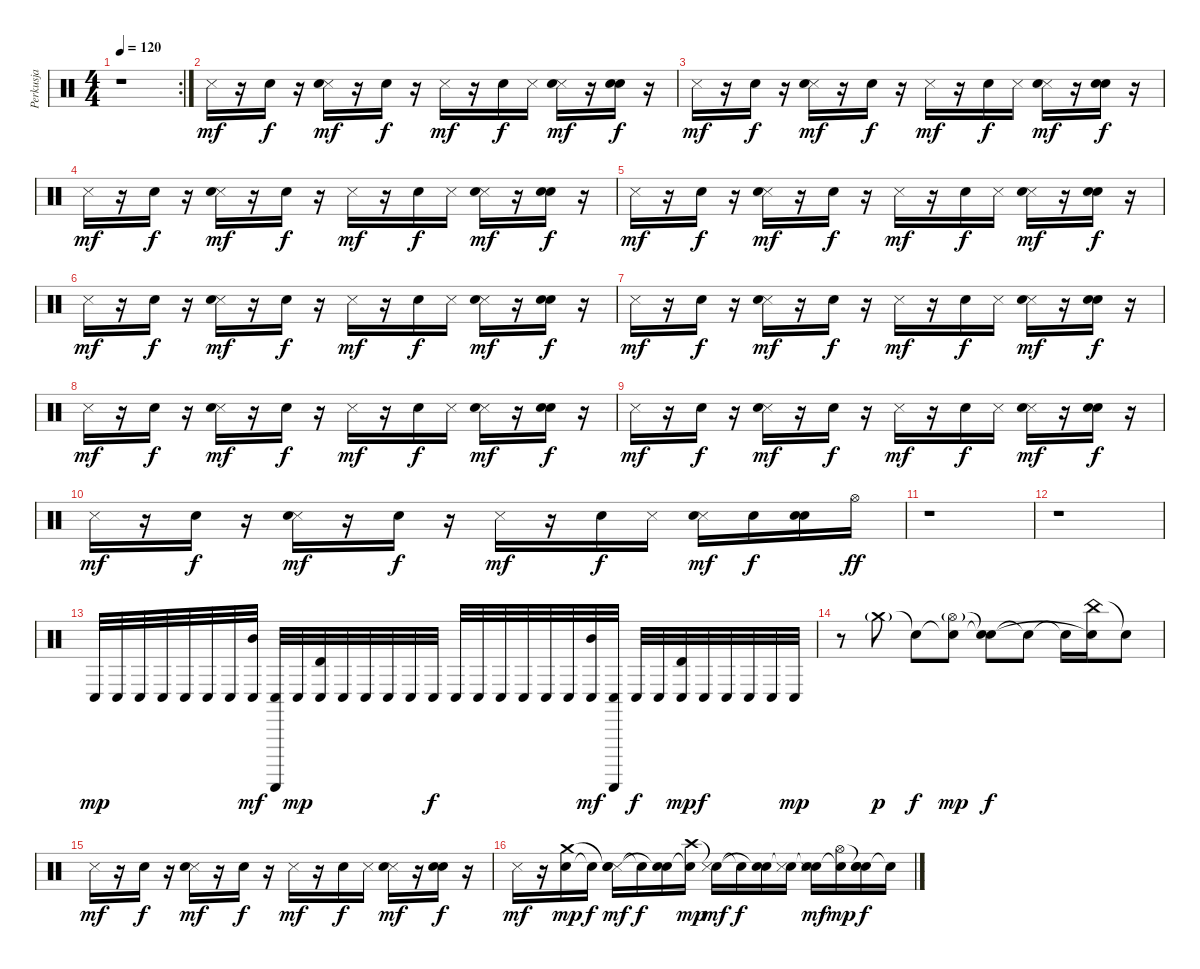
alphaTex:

\track ("Perkusja" "Perkusja") {instrument percussion}
\staff {score}
\articulation defaults
\rc 2
\ts (4 4)
\tempo 120
\clef neutral
\ks c
r.1{dy ff} |
"Metronome (hit)".16{dy mf} r.16 "Electric Snare (hit)".16{dy f} r.16 ("Snare (side stick) 3" "Metronome (bell)").16{dy mf} r.16 "Snare (hit) 2".16{dy f} r.16 "Metronome (hit)".16{dy mf} r.16 "Electric Snare (hit)".16{dy f} "Snare (side stick) 3".16 ("Snare (side stick) 3" "Metronome (bell)").16{dy mf} r.16 ("Snare (hit) 2" "Metronome (bell)").16{dy f} r.16 |
"Metronome (hit)".16{dy mf} r.16 "Electric Snare (hit)".16{dy f} r.16 ("Snare (side stick) 3" "Metronome (bell)").16{dy mf} r.16 "Snare (hit) 2".16{dy f} r.16 "Metronome (hit)".16{dy mf} r.16 "Electric Snare (hit)".16{dy f} "Snare (side stick) 3".16 ("Snare (side stick) 3" "Metronome (bell)").16{dy mf} r.16 ("Snare (hit) 2" "Metronome (bell)").16{dy f} r.16 |
"Metronome (hit)".16{dy mf} r.16 "Electric Snare (hit)".16{dy f} r.16 ("Snare (side stick) 3" "Metronome (bell)").16{dy mf} r.16 "Snare (hit) 2".16{dy f} r.16 "Metronome (hit)".16{dy mf} r.16 "Electric Snare (hit)".16{dy f} "Snare (side stick) 3".16 ("Snare (side stick) 3" "Metronome (bell)").16{dy mf} r.16 ("Snare (hit) 2" "Metronome (bell)").16{dy f} r.16 |
"Metronome (hit)".16{dy mf} r.16 "Electric Snare (hit)".16{dy f} r.16 ("Snare (side stick) 3" "Metronome (bell)").16{dy mf} r.16 "Snare (hit) 2".16{dy f} r.16 "Metronome (hit)".16{dy mf} r.16 "Electric Snare (hit)".16{dy f} "Snare (side stick) 3".16 ("Snare (side stick) 3" "Metronome (bell)").16{dy mf} r.16 ("Snare (hit) 2" "Metronome (bell)").16{dy f} r.16 |
"Metronome (hit)".16{dy mf} r.16 "Electric Snare (hit)".16{dy f} r.16 ("Snare (side stick) 3" "Metronome (bell)").16{dy mf} r.16 "Snare (hit) 2".16{dy f} r.16 "Metronome (hit)".16{dy mf} r.16 "Electric Snare (hit)".16{dy f} "Snare (side stick) 3".16 ("Snare (side stick) 3" "Metronome (bell)").16{dy mf} r.16 ("Snare (hit) 2" "Metronome (bell)").16{dy f} r.16 |
"Metronome (hit)".16{dy mf} r.16 "Electric Snare (hit)".16{dy f} r.16 ("Snare (side stick) 3" "Metronome (bell)").16{dy mf} r.16 "Snare (hit) 2".16{dy f} r.16 "Metronome (hit)".16{dy mf} r.16 "Electric Snare (hit)".16{dy f} "Snare (side stick) 3".16 ("Snare (side stick) 3" "Metronome (bell)").16{dy mf} r.16 ("Snare (hit) 2" "Metronome (bell)").16{dy f} r.16 |
"Metronome (hit)".16{dy mf} r.16 "Electric Snare (hit)".16{dy f} r.16 ("Snare (side stick) 3" "Metronome (bell)").16{dy mf} r.16 "Snare (hit) 2".16{dy f} r.16 "Metronome (hit)".16{dy mf} r.16 "Electric Snare (hit)".16{dy f} "Snare (side stick) 3".16 ("Snare (side stick) 3" "Metronome (bell)").16{dy mf} r.16 ("Snare (hit) 2" "Metronome (bell)").16{dy f} r.16 |
"Metronome (hit)".16{dy mf} r.16 "Electric Snare (hit)".16{dy f} r.16 ("Snare (side stick) 3" "Metronome (bell)").16{dy mf} r.16 "Snare (hit) 2".16{dy f} r.16 "Metronome (hit)".16{dy mf} r.16 "Electric Snare (hit)".16{dy f} "Snare (side stick) 3".16 ("Snare (side stick) 3" "Metronome (bell)").16{dy mf} r.16 ("Snare (hit) 2" "Metronome (bell)").16{dy f} r.16 |
"Metronome (hit)".16{dy mf} r.16 "Electric Snare (hit)".16{dy f} r.16 ("Snare (side stick) 3" "Metronome (bell)").16{dy mf} r.16 "Snare (hit) 2".16{dy f} r.16 "Metronome (hit)".16{dy mf} r.16 "Electric Snare (hit)".16{dy f} "Snare (side stick) 3".16 ("Snare (side stick) 3" "Metronome (bell)").16{dy mf} "Electric Snare (hit)".16{dy f} ("Snare (hit) 2" "Metronome (bell)").16 "Hi-Hat (open)".16{dy ff} |
r.1 |
r.1 |
"Conga low (hit)".32{dy mp} "Conga low (hit)".32 "Conga low (hit)".32 "Conga low (hit)".32 "Conga low (hit)".32 "Conga low (hit)".32 "Conga low (hit)".32 ("Conga low (hit)" "Mid Tom (hit)").32{dy mf} ("Conga low (hit)" "Guiro (scrap-return)").32 "Conga low (hit)".32{dy mp} ("Conga low (hit)" "Timbale high (hit)").32 "Conga low (hit)".32 "Conga low (hit)".32 "Conga low (hit)".32 "Conga low (hit)".32 "Conga low (hit)".32{dy f} "Conga low (hit)".32 "Conga low (hit)".32 "Conga low (hit)".32 "Conga low (hit)".32 "Conga low (hit)".32 "Conga low (hit)".32 ("Conga low (hit)" "Mid Tom (hit)").32{dy mf} ("Conga low (hit)" "Guiro (scrap-return)").32 "Conga low (hit)".32{dy f} "Conga low (hit)".32 ("Conga low (hit)" "Timbale high (hit)").32{dy mp} "Conga low (hit)".32{dy f} "Conga low (hit)".32 "Conga low (hit)".32 "Conga low (hit)".32 "Conga low (hit)".32{dy mp} |
r.8 "Crash medium (hit)"{g}.8{dy p} "Snare (hit)"{t}.8{dy f} ("Snare (hit)"{t} "Hi-Hat (open)"{g}).8{dy mp} ("Snare (hit)"{t} "Snare (hit)"{t}).8{dy f} "Snare (hit)"{t}.8 "Snare (hit)"{t}.16 ("China (hit)" "Snare (hit)"{t}).16 "Snare (hit)"{t}.8 |
"Metronome (hit)".16{dy mf} r.16 "Electric Snare (hit)".16{dy f} r.16 ("Snare (side stick) 3" "Metronome (bell)").16{dy mf} r.16 "Snare (hit) 2".16{dy f} r.16 "Metronome (hit)".16{dy mf} r.16 "Electric Snare (hit)".16{dy f} "Snare (side stick) 3".16 ("Snare (side stick) 3" "Metronome (bell)").16{dy mf} r.16 ("Snare (hit) 2" "Metronome (bell)").16{dy f} r.16 |
"Metronome (hit)".16{dy mf} r.16 ("Electric Snare (hit)" "Crash medium (hit)").16{dy mp} "Snare (hit)"{t}.16{dy f} ("Snare (side stick) 3" "Snare (hit)"{t} "Metronome (bell)").16{dy mf} "Snare (hit)"{t}.16{dy f} ("Snare (hit) 2" "Snare (hit)"{t}).16 ("Crash high (hit)" "Snare (hit)"{t}).16{dy mp} ("Snare (hit)"{t} "Metronome (hit)").16{dy mf} "Snare (hit)"{t}.16{dy f} ("Electric Snare (hit)" "Snare (hit)"{t}).16 ("Snare (hit)"{t} "Snare (side stick) 3").16 ("Snare (hit)"{t} "Snare (side stick) 3" "Metronome (bell)").16{dy mf} ("Snare (hit)"{t} "Hi-Hat (open)").16{dy mp} ("Snare (hit) 2" "Snare (hit)"{t} "Metronome (bell)").16{dy f} "Snare (hit)"{t}.16
